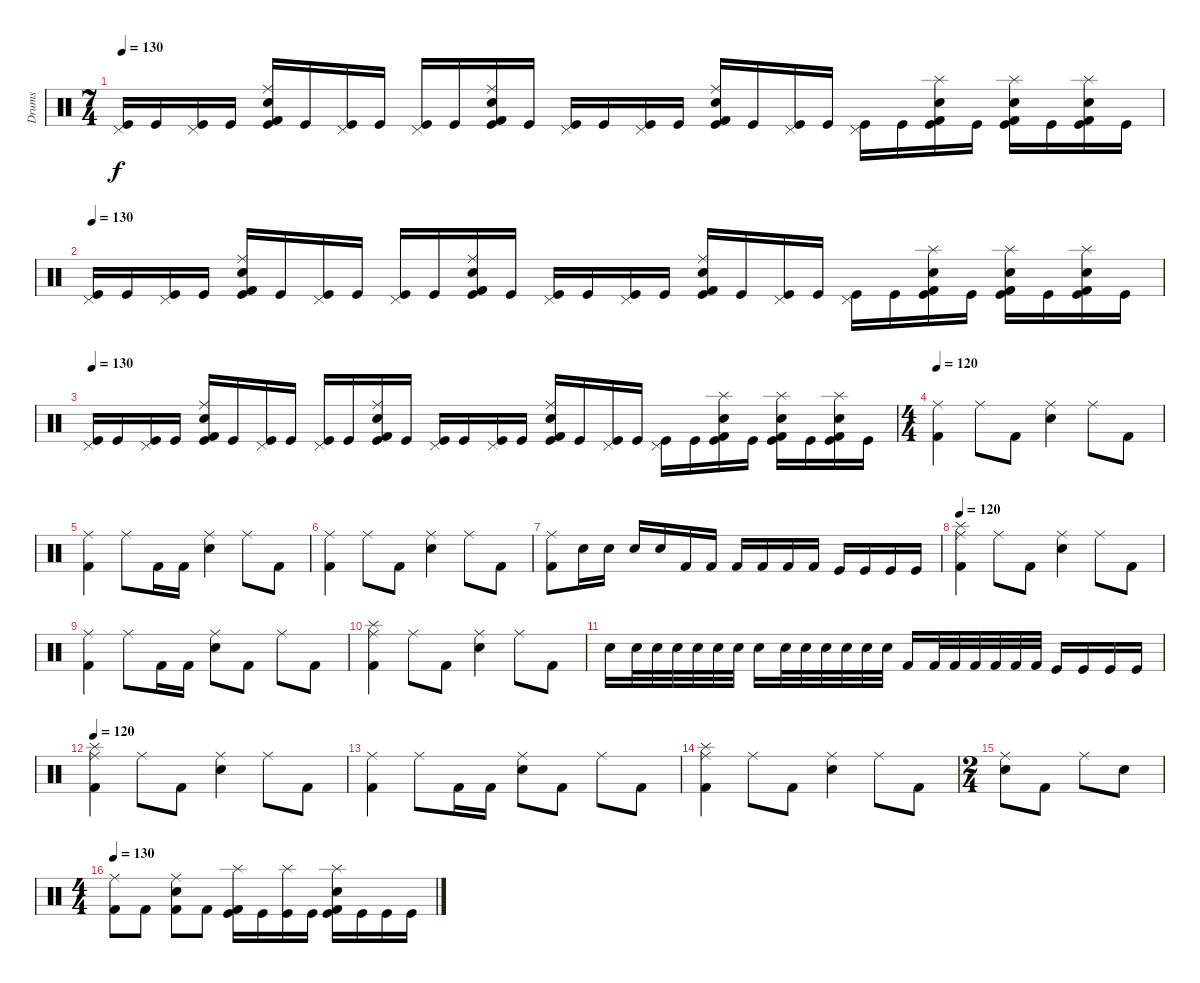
\track ("Drums" "Drums") {instrument percussion}
\staff {score}
\articulation defaults
\ts (7 4)
\tempo 130
\clef neutral
\ks c
("Pedal Hi-Hat (hit)" "Kick (hit)").16{dy f} "Kick (hit)".16 ("Pedal Hi-Hat (hit)" "Kick (hit)").16 "Kick (hit)".16 ("Ride (middle)" "Electric Snare (hit)" "Kick (hit) 2" "Kick (hit)").16 "Kick (hit)".16 ("Pedal Hi-Hat (hit)" "Kick (hit)").16 "Kick (hit)".16 ("Pedal Hi-Hat (hit)" "Kick (hit)").16 "Kick (hit)".16 ("Ride (middle)" "Electric Snare (hit)" "Kick (hit) 2" "Kick (hit)").16 "Kick (hit)".16 ("Pedal Hi-Hat (hit)" "Kick (hit)").16 "Kick (hit)".16 ("Pedal Hi-Hat (hit)" "Kick (hit)").16 "Kick (hit)".16 ("Ride (middle)" "Electric Snare (hit)" "Kick (hit) 2" "Kick (hit)").16 "Kick (hit)".16 ("Pedal Hi-Hat (hit)" "Kick (hit)").16 "Kick (hit)".16 ("Pedal Hi-Hat (hit)" "Kick (hit)").16 "Kick (hit)".16 ("Splash (hit)" "Electric Snare (hit)" "Kick (hit) 2" "Kick (hit)").16 "Kick (hit)".16 ("Splash (hit)" "Electric Snare (hit)" "Kick (hit) 2" "Kick (hit)").16 "Kick (hit)".16 ("Splash (hit)" "Electric Snare (hit)" "Kick (hit) 2" "Kick (hit)").16 "Kick (hit)".16 |
\tempo 130
("Pedal Hi-Hat (hit)" "Kick (hit)").16 "Kick (hit)".16 ("Pedal Hi-Hat (hit)" "Kick (hit)").16 "Kick (hit)".16 ("Ride (middle)" "Electric Snare (hit)" "Kick (hit) 2" "Kick (hit)").16 "Kick (hit)".16 ("Pedal Hi-Hat (hit)" "Kick (hit)").16 "Kick (hit)".16 ("Pedal Hi-Hat (hit)" "Kick (hit)").16 "Kick (hit)".16 ("Ride (middle)" "Electric Snare (hit)" "Kick (hit) 2" "Kick (hit)").16 "Kick (hit)".16 ("Pedal Hi-Hat (hit)" "Kick (hit)").16 "Kick (hit)".16 ("Pedal Hi-Hat (hit)" "Kick (hit)").16 "Kick (hit)".16 ("Ride (middle)" "Electric Snare (hit)" "Kick (hit) 2" "Kick (hit)").16 "Kick (hit)".16 ("Pedal Hi-Hat (hit)" "Kick (hit)").16 "Kick (hit)".16 ("Pedal Hi-Hat (hit)" "Kick (hit)").16 "Kick (hit)".16 ("Splash (hit)" "Electric Snare (hit)" "Kick (hit) 2" "Kick (hit)").16 "Kick (hit)".16 ("Splash (hit)" "Electric Snare (hit)" "Kick (hit) 2" "Kick (hit)").16 "Kick (hit)".16 ("Splash (hit)" "Electric Snare (hit)" "Kick (hit) 2" "Kick (hit)").16 "Kick (hit)".16 |
\tempo 130
("Pedal Hi-Hat (hit)" "Kick (hit)").16 "Kick (hit)".16 ("Pedal Hi-Hat (hit)" "Kick (hit)").16 "Kick (hit)".16 ("Ride (middle)" "Electric Snare (hit)" "Kick (hit) 2" "Kick (hit)").16 "Kick (hit)".16 ("Pedal Hi-Hat (hit)" "Kick (hit)").16 "Kick (hit)".16 ("Pedal Hi-Hat (hit)" "Kick (hit)").16 "Kick (hit)".16 ("Ride (middle)" "Electric Snare (hit)" "Kick (hit) 2" "Kick (hit)").16 "Kick (hit)".16 ("Pedal Hi-Hat (hit)" "Kick (hit)").16 "Kick (hit)".16 ("Pedal Hi-Hat (hit)" "Kick (hit)").16 "Kick (hit)".16 ("Ride (middle)" "Electric Snare (hit)" "Kick (hit) 2" "Kick (hit)").16 "Kick (hit)".16 ("Pedal Hi-Hat (hit)" "Kick (hit)").16 "Kick (hit)".16 ("Pedal Hi-Hat (hit)" "Kick (hit)").16 "Kick (hit)".16 ("Splash (hit)" "Electric Snare (hit)" "Kick (hit) 2" "Kick (hit)").16 "Kick (hit)".16 ("Splash (hit)" "Electric Snare (hit)" "Kick (hit) 2" "Kick (hit)").16 "Kick (hit)".16 ("Splash (hit)" "Electric Snare (hit)" "Kick (hit) 2" "Kick (hit)").16 "Kick (hit)".16 |
\ts (4 4)
\tempo 120
("Ride (middle)" "Kick (hit) 2").4 "Ride (middle)".8 "Kick (hit) 2".8 ("Ride (middle)" "Electric Snare (hit)").4 "Ride (middle)".8 "Kick (hit) 2".8 |
("Ride (middle)" "Kick (hit) 2").4 "Ride (middle)".8 "Kick (hit) 2".16 "Kick (hit) 2".16 ("Ride (middle)" "Electric Snare (hit)").4 "Ride (middle)".8 "Kick (hit) 2".8 |
("Ride (middle)" "Kick (hit) 2").4 "Ride (middle)".8 "Kick (hit) 2".8 ("Ride (middle)" "Electric Snare (hit)").4 "Ride (middle)".8 "Kick (hit) 2".8 |
("Ride (middle)" "Kick (hit) 2").8 "Electric Snare (hit)".16 "Electric Snare (hit)".16 "Electric Snare (hit)".16 "Electric Snare (hit)".16 "Kick (hit) 2".16 "Kick (hit) 2".16 "Kick (hit) 2".16 "Kick (hit) 2".16 "Kick (hit) 2".16 "Kick (hit) 2".16 "Kick (hit)".16 "Kick (hit)".16 "Kick (hit)".16 "Kick (hit)".16 |
\tempo 120
("Ride (middle)" "Splash (hit)" "Kick (hit) 2").4 "Ride (middle)".8 "Kick (hit) 2".8 ("Ride (middle)" "Electric Snare (hit)").4 "Ride (middle)".8 "Kick (hit) 2".8 |
("Ride (middle)" "Kick (hit) 2").4 "Ride (middle)".8 "Kick (hit) 2".16 "Kick (hit) 2".16 ("Ride (middle)" "Electric Snare (hit)").8 "Kick (hit) 2".8 "Ride (middle)".8 "Kick (hit) 2".8 |
("Ride (middle)" "Splash (hit)" "Kick (hit) 2").4 "Ride (middle)".8 "Kick (hit) 2".8 ("Ride (middle)" "Electric Snare (hit)").4 "Ride (middle)".8 "Kick (hit) 2".8 |
"Electric Snare (hit)".16 "Electric Snare (hit)".32 "Electric Snare (hit)".32 "Electric Snare (hit)".32 "Electric Snare (hit)".32 "Electric Snare (hit)".32 "Electric Snare (hit)".32 "Snare (hit) 2".16 "Snare (hit) 2".32 "Snare (hit) 2".32 "Snare (hit) 2".32 "Snare (hit) 2".32 "Snare (hit) 2".32 "Snare (hit) 2".32 "Kick (hit) 2".16 "Kick (hit) 2".32 "Kick (hit) 2".32 "Kick (hit) 2".32 "Kick (hit) 2".32 "Kick (hit) 2".32 "Kick (hit) 2".32 "Kick (hit)".16 "Kick (hit)".16 "Kick (hit)".16 "Kick (hit)".16 |
\tempo 120
("Ride (middle)" "Splash (hit)" "Kick (hit) 2").4 "Ride (middle)".8 "Kick (hit) 2".8 ("Ride (middle)" "Electric Snare (hit)").4 "Ride (middle)".8 "Kick (hit) 2".8 |
("Ride (middle)" "Kick (hit) 2").4 "Ride (middle)".8 "Kick (hit) 2".16 "Kick (hit) 2".16 ("Ride (middle)" "Electric Snare (hit)").8 "Kick (hit) 2".8 "Ride (middle)".8 "Kick (hit) 2".8 |
("Ride (middle)" "Splash (hit)" "Kick (hit) 2").4 "Ride (middle)".8 "Kick (hit) 2".8 ("Ride (middle)" "Electric Snare (hit)").4 "Ride (middle)".8 "Kick (hit) 2".8 |
\ts (2 4)
("Ride (middle)" "Electric Snare (hit)").8 "Kick (hit) 2".8 "Ride (middle)".8 "Electric Snare (hit)".8 |
\ts (4 4)
\tempo 130
("Ride (middle)" "Kick (hit) 2").8 "Kick (hit) 2".8 ("Ride (middle)" "Electric Snare (hit)" "Kick (hit) 2").8 "Kick (hit) 2".8 ("Splash (hit)" "Kick (hit) 2" "Kick (hit)").16 "Kick (hit)".16 ("Splash (hit)" "Kick (hit)").16 "Kick (hit)".16 ("Splash (hit)" "Electric Snare (hit)" "Kick (hit) 2" "Kick (hit)").16 "Kick (hit)".16 "Kick (hit)".16 "Kick (hit)".16
